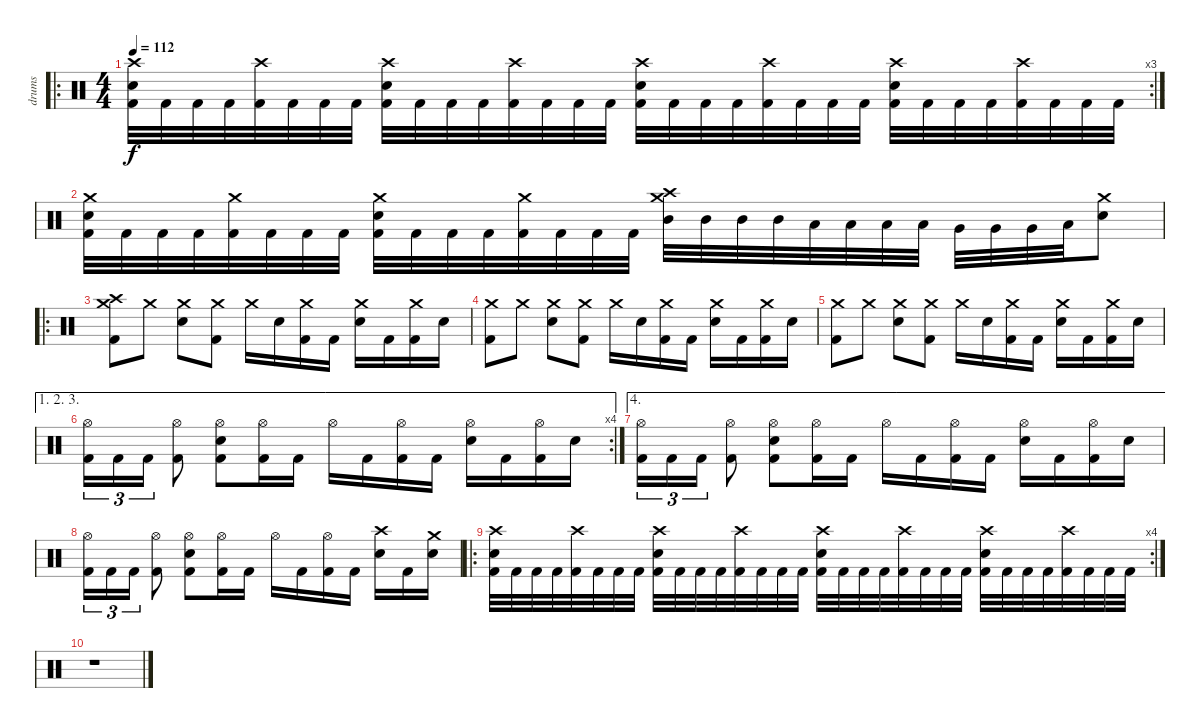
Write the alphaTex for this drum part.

\track ("drums" "drums") {instrument percussion}
\staff {score}
\articulation defaults
\ro
\rc 3
\ts (4 4)
\tempo 112
\clef neutral
\ks c
("Crash high (hit)" "Electric Snare (hit)" "Kick (hit) 2").32{dy f} "Kick (hit) 2".32 "Kick (hit) 2".32 "Kick (hit) 2".32 ("Crash high (hit)" "Kick (hit) 2").32 "Kick (hit) 2".32 "Kick (hit) 2".32 "Kick (hit) 2".32 ("Crash high (hit)" "Electric Snare (hit)" "Kick (hit) 2").32 "Kick (hit) 2".32 "Kick (hit) 2".32 "Kick (hit) 2".32 ("Crash high (hit)" "Kick (hit) 2").32 "Kick (hit) 2".32 "Kick (hit) 2".32 "Kick (hit) 2".32 ("Crash high (hit)" "Electric Snare (hit)" "Kick (hit) 2").32 "Kick (hit) 2".32 "Kick (hit) 2".32 "Kick (hit) 2".32 ("Crash high (hit)" "Kick (hit) 2").32 "Kick (hit) 2".32 "Kick (hit) 2".32 "Kick (hit) 2".32 ("Crash high (hit)" "Electric Snare (hit)" "Kick (hit) 2").32 "Kick (hit) 2".32 "Kick (hit) 2".32 "Kick (hit) 2".32 ("Crash high (hit)" "Kick (hit) 2").32 "Kick (hit) 2".32 "Kick (hit) 2".32 "Kick (hit) 2".32 |
("Crash medium (hit)" "Electric Snare (hit)" "Kick (hit) 2").32 "Kick (hit) 2".32 "Kick (hit) 2".32 "Kick (hit) 2".32 ("Crash medium (hit)" "Kick (hit) 2").32 "Kick (hit) 2".32 "Kick (hit) 2".32 "Kick (hit) 2".32 ("Crash medium (hit)" "Electric Snare (hit)" "Kick (hit) 2").32 "Kick (hit) 2".32 "Kick (hit) 2".32 "Kick (hit) 2".32 ("Crash medium (hit)" "Kick (hit) 2").32 "Kick (hit) 2".32 "Kick (hit) 2".32 "Kick (hit) 2".32 ("Crash medium (hit)" "Crash high (hit)" "Mid Tom (hit)").32 "Mid Tom (hit)".32 "Mid Tom (hit)".32 "Mid Tom (hit)".32 "Low Tom (hit)".32 "Low Tom (hit)".32 "Low Tom (hit)".32 "Low Tom (hit)".32 "Very Low Tom (hit)".32 "Very Low Tom (hit)".32 "Very Low Tom (hit)".32 "Low Floor Tom (hit)".32 ("Crash medium (hit)" "Electric Snare (hit)").8 |
\ro
("Crash high (hit)" "Crash medium (hit)" "Kick (hit) 2").8 "Crash medium (hit)".8 ("Crash medium (hit)" "Electric Snare (hit)").8 ("Crash medium (hit)" "Kick (hit) 2").8 "Crash medium (hit)".16 "Electric Snare (hit)".16 ("Crash medium (hit)" "Kick (hit) 2").16 "Kick (hit) 2".16 ("Crash medium (hit)" "Electric Snare (hit)").16 "Kick (hit) 2".16 ("Crash medium (hit)" "Kick (hit) 2").16 "Electric Snare (hit)".16 |
("Crash medium (hit)" "Kick (hit) 2").8 "Crash medium (hit)".8 ("Crash medium (hit)" "Electric Snare (hit)").8 ("Crash medium (hit)" "Kick (hit) 2").8 "Crash medium (hit)".16 "Electric Snare (hit)".16 ("Crash medium (hit)" "Kick (hit) 2").16 "Kick (hit) 2".16 ("Crash medium (hit)" "Electric Snare (hit)").16 "Kick (hit) 2".16 ("Crash medium (hit)" "Kick (hit) 2").16 "Electric Snare (hit)".16 |
("Crash medium (hit)" "Kick (hit) 2").8 "Crash medium (hit)".8 ("Crash medium (hit)" "Electric Snare (hit)").8 ("Crash medium (hit)" "Kick (hit) 2").8 "Crash medium (hit)".16 "Electric Snare (hit)".16 ("Crash medium (hit)" "Kick (hit) 2").16 "Kick (hit) 2".16 ("Crash medium (hit)" "Electric Snare (hit)").16 "Kick (hit) 2".16 ("Crash medium (hit)" "Kick (hit) 2").16 "Electric Snare (hit)".16 |
\ae (1 2 3)
\rc 4
("Hi-Hat (open)" "Kick (hit) 2").16{tu (3 2)} "Kick (hit) 2".16{tu (3 2)} "Kick (hit) 2".16{tu (3 2)} ("Hi-Hat (open)" "Kick (hit) 2").8 ("Hi-Hat (open)" "Electric Snare (hit)" "Kick (hit) 2").8 ("Hi-Hat (open)" "Kick (hit) 2").16 "Kick (hit) 2".16 "Hi-Hat (open)".16 "Kick (hit) 2".16 ("Hi-Hat (open)" "Kick (hit) 2").16 "Kick (hit) 2".16 ("Hi-Hat (open)" "Electric Snare (hit)").16 "Kick (hit) 2".16 ("Hi-Hat (open)" "Kick (hit) 2").16 "Electric Snare (hit)".16 |
\ae 4
("Hi-Hat (open)" "Kick (hit) 2").16{tu (3 2)} "Kick (hit) 2".16{tu (3 2)} "Kick (hit) 2".16{tu (3 2)} ("Hi-Hat (open)" "Kick (hit) 2").8 ("Hi-Hat (open)" "Electric Snare (hit)" "Kick (hit) 2").8 ("Hi-Hat (open)" "Kick (hit) 2").16 "Kick (hit) 2".16 "Hi-Hat (open)".16 "Kick (hit) 2".16 ("Hi-Hat (open)" "Kick (hit) 2").16 "Kick (hit) 2".16 ("Hi-Hat (open)" "Electric Snare (hit)").16 "Kick (hit) 2".16 ("Hi-Hat (open)" "Kick (hit) 2").16 "Electric Snare (hit)".16 |
("Hi-Hat (open)" "Kick (hit) 2").16{tu (3 2)} "Kick (hit) 2".16{tu (3 2)} "Kick (hit) 2".16{tu (3 2)} ("Hi-Hat (open)" "Kick (hit) 2").8 ("Hi-Hat (open)" "Electric Snare (hit)" "Kick (hit) 2").8 ("Hi-Hat (open)" "Kick (hit) 2").16 "Kick (hit) 2".16 "Hi-Hat (open)".16 "Kick (hit) 2".16 ("Hi-Hat (open)" "Kick (hit) 2").16 "Kick (hit) 2".16 ("Crash high (hit)" "Electric Snare (hit)").16 "Kick (hit) 2".16 ("Crash medium (hit)" "Electric Snare (hit)").16 |
\ro
\rc 4
("Crash high (hit)" "Electric Snare (hit)" "Kick (hit) 2").32 "Kick (hit) 2".32 "Kick (hit) 2".32 "Kick (hit) 2".32 ("Crash high (hit)" "Kick (hit) 2").32 "Kick (hit) 2".32 "Kick (hit) 2".32 "Kick (hit) 2".32 ("Crash high (hit)" "Electric Snare (hit)" "Kick (hit) 2").32 "Kick (hit) 2".32 "Kick (hit) 2".32 "Kick (hit) 2".32 ("Crash high (hit)" "Kick (hit) 2").32 "Kick (hit) 2".32 "Kick (hit) 2".32 "Kick (hit) 2".32 ("Crash high (hit)" "Electric Snare (hit)" "Kick (hit) 2").32 "Kick (hit) 2".32 "Kick (hit) 2".32 "Kick (hit) 2".32 ("Crash high (hit)" "Kick (hit) 2").32 "Kick (hit) 2".32 "Kick (hit) 2".32 "Kick (hit) 2".32 ("Crash high (hit)" "Electric Snare (hit)" "Kick (hit) 2").32 "Kick (hit) 2".32 "Kick (hit) 2".32 "Kick (hit) 2".32 ("Crash high (hit)" "Kick (hit) 2").32 "Kick (hit) 2".32 "Kick (hit) 2".32 "Kick (hit) 2".32 |
r.1
